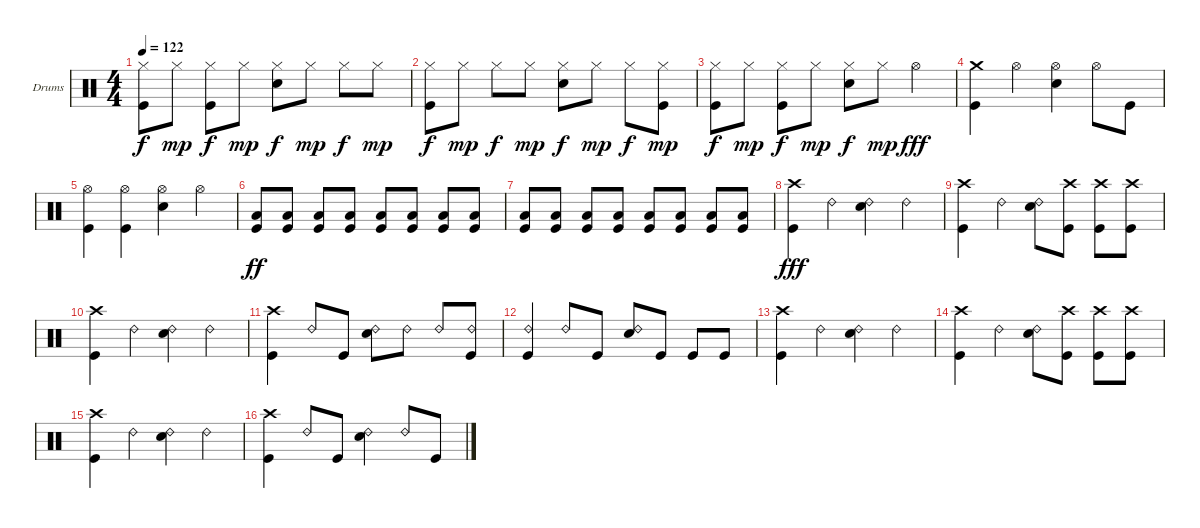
\bracketExtendMode groupsimilarinstruments
\firstSystemTrackNameOrientation horizontal
\otherSystemsTrackNameOrientation horizontal
\track ("Drumkit" "Drums") {instrument percussion}
\staff {score}
\articulation defaults
\ts (4 4)
\tempo 122
\clef neutral
\ks c
("Hi-Hat (closed)" "Kick (hit)").8{dy f} "Hi-Hat (closed)".8{dy mp} ("Hi-Hat (closed)" "Kick (hit)").8{dy f} "Hi-Hat (closed)".8{dy mp} ("Hi-Hat (closed)" "Snare (hit) 2").8{dy f} "Hi-Hat (closed)".8{dy mp} "Hi-Hat (closed)".8{dy f} "Hi-Hat (closed)".8{dy mp} |
("Hi-Hat (closed)" "Kick (hit)").8{dy f} "Hi-Hat (closed)".8{dy mp} "Hi-Hat (closed)".8{dy f} "Hi-Hat (closed)".8{dy mp} ("Hi-Hat (closed)" "Snare (hit) 2").8{dy f} "Hi-Hat (closed)".8{dy mp} "Hi-Hat (closed)".8{dy f} ("Hi-Hat (closed)" "Kick (hit)").8{dy mp} |
("Hi-Hat (closed)" "Kick (hit)").8{dy f} "Hi-Hat (closed)".8{dy mp} ("Hi-Hat (closed)" "Kick (hit)").8{dy f} "Hi-Hat (closed)".8{dy mp} ("Hi-Hat (closed)" "Snare (hit) 2").8{dy f} "Hi-Hat (closed)".8{dy mp} "Hi-Hat (open)".4{dy fff} |
("Crash medium (hit)" "Kick (hit)").4 "Hi-Hat (open)".4 ("Hi-Hat (open)" "Snare (hit) 2").4 "Hi-Hat (open)".8 "Kick (hit)".8 |
("Hi-Hat (open)" "Kick (hit)").4 ("Hi-Hat (open)" "Kick (hit)").4 ("Hi-Hat (open)" "Snare (hit) 2").4 "Hi-Hat (open)".4 |
("Kick (hit)" "Low Tom (hit)").8{dy ff} ("Kick (hit)" "Low Tom (hit)").8 ("Kick (hit)" "Low Tom (hit)").8 ("Kick (hit)" "Low Tom (hit)").8 ("Kick (hit)" "Low Tom (hit)").8 ("Kick (hit)" "Low Tom (hit)").8 ("Kick (hit)" "Low Tom (hit)").8 ("Kick (hit)" "Low Tom (hit)").8 |
("Kick (hit)" "Low Tom (hit)").8 ("Kick (hit)" "Low Tom (hit)").8 ("Kick (hit)" "Low Tom (hit)").8 ("Kick (hit)" "Low Tom (hit)").8 ("Kick (hit)" "Low Tom (hit)").8 ("Kick (hit)" "Low Tom (hit)").8 ("Kick (hit)" "Low Tom (hit)").8 ("Kick (hit)" "Low Tom (hit)").8 |
("Kick (hit)" "Crash high (hit)").4{dy fff} "Ride (bell) 2".4 ("Snare (hit) 2" "Ride (bell) 2").4 "Ride (bell) 2".4 |
("Kick (hit)" "Crash high (hit)").4 "Ride (bell) 2".4 ("Snare (hit) 2" "Ride (bell) 2").8 ("Kick (hit)" "Crash high (hit)").8 ("Kick (hit)" "Crash high (hit)").8 ("Kick (hit)" "Crash high (hit)").8 |
("Kick (hit)" "Crash high (hit)").4 "Ride (bell) 2".4 ("Snare (hit) 2" "Ride (bell) 2").4 "Ride (bell) 2".4 |
("Kick (hit)" "Crash high (hit)").4 "Ride (bell) 2".8 "Kick (hit)".8 ("Ride (bell) 2" "Snare (hit) 2").8 "Ride (bell) 2".8 "Ride (bell) 2".8 ("Kick (hit)" "Ride (bell) 2").8 |
("Ride (bell) 2" "Kick (hit)").4 "Ride (bell) 2".8 "Kick (hit)".8 ("Ride (bell) 2" "Snare (hit) 2").8 "Kick (hit)".8 "Kick (hit)".8 "Kick (hit)".8 |
("Kick (hit)" "Crash high (hit)").4 "Ride (bell) 2".4 ("Snare (hit) 2" "Ride (bell) 2").4 "Ride (bell) 2".4 |
("Kick (hit)" "Crash high (hit)").4 "Ride (bell) 2".4 ("Snare (hit) 2" "Ride (bell) 2").8 ("Kick (hit)" "Crash high (hit)").8 ("Kick (hit)" "Crash high (hit)").8 ("Kick (hit)" "Crash high (hit)").8 |
("Kick (hit)" "Crash high (hit)").4 "Ride (bell) 2".4 ("Snare (hit) 2" "Ride (bell) 2").4 "Ride (bell) 2".4 |
("Crash high (hit)" "Kick (hit)").4 "Ride (bell) 2".8 "Kick (hit)".8 ("Ride (bell) 2" "Snare (hit) 2").4 "Ride (bell) 2".8 "Kick (hit)".8
